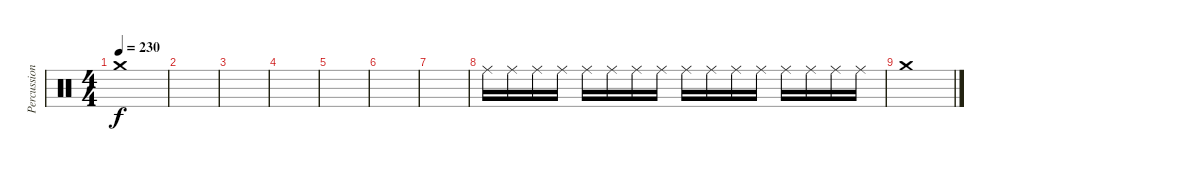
\track ("Percussion" "Percussion") {instrument percussion}
\staff {score}
\articulation defaults
\ts (4 4)
\tempo 230
\clef neutral
\ks c "Crash medium (hit)".1{dy f}
|
|
|
|
|
|
|
"Ride (middle)".16{volume 2} "Ride (middle)".16 "Ride (middle)".16{volume 4} "Ride (middle)".16 "Ride (middle)".16{volume 6} "Ride (middle)".16 "Ride (middle)".16{volume 6} "Ride (middle)".16 "Ride (middle)".16{volume 8} "Ride (middle)".16 "Ride (middle)".16{volume 10} "Ride (middle)".16 "Ride (middle)".16{volume 13} "Ride (middle)".16 "Ride (middle)".16 "Ride (middle)".16 |
"Crash medium (hit)".1
